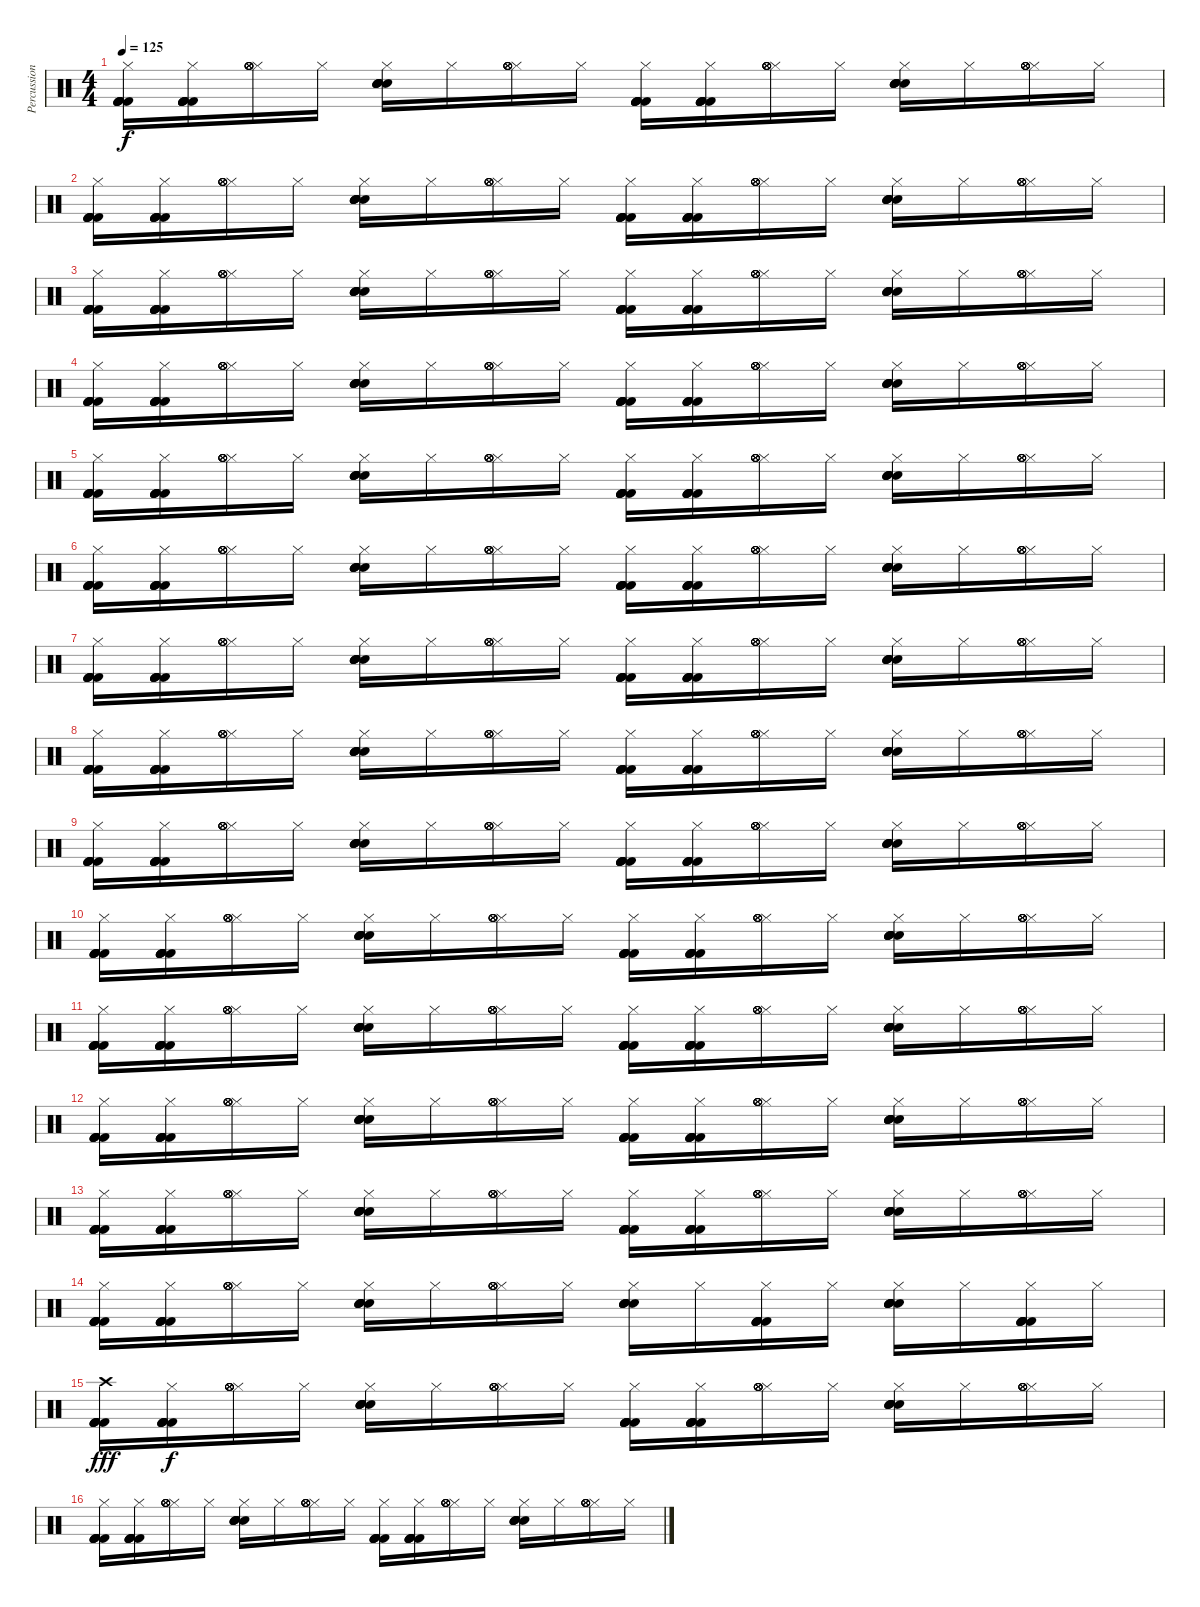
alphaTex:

\track ("Percussion" "Percussion") {instrument percussion}
\staff {score}
\articulation defaults
\ts (4 4)
\tempo 125
\clef neutral
\ks c
("Hi-Hat (closed)" "Kick (hit) 2" "Kick (hit) 2" "Kick (hit) 2" "Kick (hit) 2" "Kick (hit) 2").16{dy f} ("Hi-Hat (closed)" "Kick (hit) 2" "Kick (hit) 2" "Kick (hit) 2" "Kick (hit) 2" "Kick (hit) 2").16 ("Hi-Hat (closed)" "Hi-Hat (open)" "Hi-Hat (open)" "Hi-Hat (open)" "Hi-Hat (open)" "Hi-Hat (open)").16 "Hi-Hat (closed)".16 ("Hi-Hat (closed)" "Electric Snare (hit)" "Electric Snare (hit)" "Electric Snare (hit)" "Electric Snare (hit)" "Electric Snare (hit)").16 "Hi-Hat (closed)".16 ("Hi-Hat (closed)" "Hi-Hat (open)" "Hi-Hat (open)" "Hi-Hat (open)" "Hi-Hat (open)" "Hi-Hat (open)").16 "Hi-Hat (closed)".16 ("Hi-Hat (closed)" "Kick (hit) 2" "Kick (hit) 2" "Kick (hit) 2" "Kick (hit) 2" "Kick (hit) 2").16 ("Hi-Hat (closed)" "Kick (hit) 2" "Kick (hit) 2" "Kick (hit) 2" "Kick (hit) 2" "Kick (hit) 2").16 ("Hi-Hat (closed)" "Hi-Hat (open)" "Hi-Hat (open)" "Hi-Hat (open)" "Hi-Hat (open)" "Hi-Hat (open)").16 "Hi-Hat (closed)".16 ("Hi-Hat (closed)" "Electric Snare (hit)" "Electric Snare (hit)" "Electric Snare (hit)" "Electric Snare (hit)" "Electric Snare (hit)").16 "Hi-Hat (closed)".16 ("Hi-Hat (closed)" "Hi-Hat (open)" "Hi-Hat (open)" "Hi-Hat (open)" "Hi-Hat (open)" "Hi-Hat (open)").16 "Hi-Hat (closed)".16 |
("Hi-Hat (closed)" "Kick (hit) 2" "Kick (hit) 2" "Kick (hit) 2" "Kick (hit) 2" "Kick (hit) 2").16 ("Hi-Hat (closed)" "Kick (hit) 2" "Kick (hit) 2" "Kick (hit) 2" "Kick (hit) 2" "Kick (hit) 2").16 ("Hi-Hat (closed)" "Hi-Hat (open)" "Hi-Hat (open)" "Hi-Hat (open)" "Hi-Hat (open)" "Hi-Hat (open)").16 "Hi-Hat (closed)".16 ("Hi-Hat (closed)" "Electric Snare (hit)" "Electric Snare (hit)" "Electric Snare (hit)" "Electric Snare (hit)" "Electric Snare (hit)").16 "Hi-Hat (closed)".16 ("Hi-Hat (closed)" "Hi-Hat (open)" "Hi-Hat (open)" "Hi-Hat (open)" "Hi-Hat (open)" "Hi-Hat (open)").16 "Hi-Hat (closed)".16 ("Hi-Hat (closed)" "Kick (hit) 2" "Kick (hit) 2" "Kick (hit) 2" "Kick (hit) 2" "Kick (hit) 2").16 ("Hi-Hat (closed)" "Kick (hit) 2" "Kick (hit) 2" "Kick (hit) 2" "Kick (hit) 2" "Kick (hit) 2").16 ("Hi-Hat (closed)" "Hi-Hat (open)" "Hi-Hat (open)" "Hi-Hat (open)" "Hi-Hat (open)" "Hi-Hat (open)").16 "Hi-Hat (closed)".16 ("Hi-Hat (closed)" "Electric Snare (hit)" "Electric Snare (hit)" "Electric Snare (hit)" "Electric Snare (hit)" "Electric Snare (hit)").16 "Hi-Hat (closed)".16 ("Hi-Hat (closed)" "Hi-Hat (open)" "Hi-Hat (open)" "Hi-Hat (open)" "Hi-Hat (open)" "Hi-Hat (open)").16 "Hi-Hat (closed)".16 |
("Hi-Hat (closed)" "Kick (hit) 2" "Kick (hit) 2" "Kick (hit) 2" "Kick (hit) 2" "Kick (hit) 2").16 ("Hi-Hat (closed)" "Kick (hit) 2" "Kick (hit) 2" "Kick (hit) 2" "Kick (hit) 2" "Kick (hit) 2").16 ("Hi-Hat (closed)" "Hi-Hat (open)" "Hi-Hat (open)" "Hi-Hat (open)" "Hi-Hat (open)" "Hi-Hat (open)").16 "Hi-Hat (closed)".16 ("Hi-Hat (closed)" "Electric Snare (hit)" "Electric Snare (hit)" "Electric Snare (hit)" "Electric Snare (hit)" "Electric Snare (hit)").16 "Hi-Hat (closed)".16 ("Hi-Hat (closed)" "Hi-Hat (open)" "Hi-Hat (open)" "Hi-Hat (open)" "Hi-Hat (open)" "Hi-Hat (open)").16 "Hi-Hat (closed)".16 ("Hi-Hat (closed)" "Kick (hit) 2" "Kick (hit) 2" "Kick (hit) 2" "Kick (hit) 2" "Kick (hit) 2").16 ("Hi-Hat (closed)" "Kick (hit) 2" "Kick (hit) 2" "Kick (hit) 2" "Kick (hit) 2" "Kick (hit) 2").16 ("Hi-Hat (closed)" "Hi-Hat (open)" "Hi-Hat (open)" "Hi-Hat (open)" "Hi-Hat (open)" "Hi-Hat (open)").16 "Hi-Hat (closed)".16 ("Hi-Hat (closed)" "Electric Snare (hit)" "Electric Snare (hit)" "Electric Snare (hit)" "Electric Snare (hit)" "Electric Snare (hit)").16 "Hi-Hat (closed)".16 ("Hi-Hat (closed)" "Hi-Hat (open)" "Hi-Hat (open)" "Hi-Hat (open)" "Hi-Hat (open)" "Hi-Hat (open)").16 "Hi-Hat (closed)".16 |
("Hi-Hat (closed)" "Kick (hit) 2" "Kick (hit) 2" "Kick (hit) 2" "Kick (hit) 2" "Kick (hit) 2").16 ("Hi-Hat (closed)" "Kick (hit) 2" "Kick (hit) 2" "Kick (hit) 2" "Kick (hit) 2" "Kick (hit) 2").16 ("Hi-Hat (closed)" "Hi-Hat (open)" "Hi-Hat (open)" "Hi-Hat (open)" "Hi-Hat (open)" "Hi-Hat (open)").16 "Hi-Hat (closed)".16 ("Hi-Hat (closed)" "Electric Snare (hit)" "Electric Snare (hit)" "Electric Snare (hit)" "Electric Snare (hit)" "Electric Snare (hit)").16 "Hi-Hat (closed)".16 ("Hi-Hat (closed)" "Hi-Hat (open)" "Hi-Hat (open)" "Hi-Hat (open)" "Hi-Hat (open)" "Hi-Hat (open)").16 "Hi-Hat (closed)".16 ("Hi-Hat (closed)" "Kick (hit) 2" "Kick (hit) 2" "Kick (hit) 2" "Kick (hit) 2" "Kick (hit) 2").16 ("Hi-Hat (closed)" "Kick (hit) 2" "Kick (hit) 2" "Kick (hit) 2" "Kick (hit) 2" "Kick (hit) 2").16 ("Hi-Hat (closed)" "Hi-Hat (open)" "Hi-Hat (open)" "Hi-Hat (open)" "Hi-Hat (open)" "Hi-Hat (open)").16 "Hi-Hat (closed)".16 ("Hi-Hat (closed)" "Electric Snare (hit)" "Electric Snare (hit)" "Electric Snare (hit)" "Electric Snare (hit)" "Electric Snare (hit)").16 "Hi-Hat (closed)".16 ("Hi-Hat (closed)" "Hi-Hat (open)" "Hi-Hat (open)" "Hi-Hat (open)" "Hi-Hat (open)" "Hi-Hat (open)").16 "Hi-Hat (closed)".16 |
("Hi-Hat (closed)" "Kick (hit) 2" "Kick (hit) 2" "Kick (hit) 2" "Kick (hit) 2" "Kick (hit) 2").16 ("Hi-Hat (closed)" "Kick (hit) 2" "Kick (hit) 2" "Kick (hit) 2" "Kick (hit) 2" "Kick (hit) 2").16 ("Hi-Hat (closed)" "Hi-Hat (open)" "Hi-Hat (open)" "Hi-Hat (open)" "Hi-Hat (open)" "Hi-Hat (open)").16 "Hi-Hat (closed)".16 ("Hi-Hat (closed)" "Electric Snare (hit)" "Electric Snare (hit)" "Electric Snare (hit)" "Electric Snare (hit)" "Electric Snare (hit)").16 "Hi-Hat (closed)".16 ("Hi-Hat (closed)" "Hi-Hat (open)" "Hi-Hat (open)" "Hi-Hat (open)" "Hi-Hat (open)" "Hi-Hat (open)").16 "Hi-Hat (closed)".16 ("Hi-Hat (closed)" "Kick (hit) 2" "Kick (hit) 2" "Kick (hit) 2" "Kick (hit) 2" "Kick (hit) 2").16 ("Hi-Hat (closed)" "Kick (hit) 2" "Kick (hit) 2" "Kick (hit) 2" "Kick (hit) 2" "Kick (hit) 2").16 ("Hi-Hat (closed)" "Hi-Hat (open)" "Hi-Hat (open)" "Hi-Hat (open)" "Hi-Hat (open)" "Hi-Hat (open)").16 "Hi-Hat (closed)".16 ("Hi-Hat (closed)" "Electric Snare (hit)" "Electric Snare (hit)" "Electric Snare (hit)" "Electric Snare (hit)" "Electric Snare (hit)").16 "Hi-Hat (closed)".16 ("Hi-Hat (closed)" "Hi-Hat (open)" "Hi-Hat (open)" "Hi-Hat (open)" "Hi-Hat (open)" "Hi-Hat (open)").16 "Hi-Hat (closed)".16 |
("Hi-Hat (closed)" "Kick (hit) 2" "Kick (hit) 2" "Kick (hit) 2" "Kick (hit) 2" "Kick (hit) 2").16 ("Hi-Hat (closed)" "Kick (hit) 2" "Kick (hit) 2" "Kick (hit) 2" "Kick (hit) 2" "Kick (hit) 2").16 ("Hi-Hat (closed)" "Hi-Hat (open)" "Hi-Hat (open)" "Hi-Hat (open)" "Hi-Hat (open)" "Hi-Hat (open)").16 "Hi-Hat (closed)".16 ("Hi-Hat (closed)" "Electric Snare (hit)" "Electric Snare (hit)" "Electric Snare (hit)" "Electric Snare (hit)" "Electric Snare (hit)").16 "Hi-Hat (closed)".16 ("Hi-Hat (closed)" "Hi-Hat (open)" "Hi-Hat (open)" "Hi-Hat (open)" "Hi-Hat (open)" "Hi-Hat (open)").16 "Hi-Hat (closed)".16 ("Hi-Hat (closed)" "Kick (hit) 2" "Kick (hit) 2" "Kick (hit) 2" "Kick (hit) 2" "Kick (hit) 2").16 ("Hi-Hat (closed)" "Kick (hit) 2" "Kick (hit) 2" "Kick (hit) 2" "Kick (hit) 2" "Kick (hit) 2").16 ("Hi-Hat (closed)" "Hi-Hat (open)" "Hi-Hat (open)" "Hi-Hat (open)" "Hi-Hat (open)" "Hi-Hat (open)").16 "Hi-Hat (closed)".16 ("Hi-Hat (closed)" "Electric Snare (hit)" "Electric Snare (hit)" "Electric Snare (hit)" "Electric Snare (hit)" "Electric Snare (hit)").16 "Hi-Hat (closed)".16 ("Hi-Hat (closed)" "Hi-Hat (open)" "Hi-Hat (open)" "Hi-Hat (open)" "Hi-Hat (open)" "Hi-Hat (open)").16 "Hi-Hat (closed)".16 |
("Hi-Hat (closed)" "Kick (hit) 2" "Kick (hit) 2" "Kick (hit) 2" "Kick (hit) 2" "Kick (hit) 2").16 ("Hi-Hat (closed)" "Kick (hit) 2" "Kick (hit) 2" "Kick (hit) 2" "Kick (hit) 2" "Kick (hit) 2").16 ("Hi-Hat (closed)" "Hi-Hat (open)" "Hi-Hat (open)" "Hi-Hat (open)" "Hi-Hat (open)" "Hi-Hat (open)").16 "Hi-Hat (closed)".16 ("Hi-Hat (closed)" "Electric Snare (hit)" "Electric Snare (hit)" "Electric Snare (hit)" "Electric Snare (hit)" "Electric Snare (hit)").16 "Hi-Hat (closed)".16 ("Hi-Hat (closed)" "Hi-Hat (open)" "Hi-Hat (open)" "Hi-Hat (open)" "Hi-Hat (open)" "Hi-Hat (open)").16 "Hi-Hat (closed)".16 ("Hi-Hat (closed)" "Kick (hit) 2" "Kick (hit) 2" "Kick (hit) 2" "Kick (hit) 2" "Kick (hit) 2").16 ("Hi-Hat (closed)" "Kick (hit) 2" "Kick (hit) 2" "Kick (hit) 2" "Kick (hit) 2" "Kick (hit) 2").16 ("Hi-Hat (closed)" "Hi-Hat (open)" "Hi-Hat (open)" "Hi-Hat (open)" "Hi-Hat (open)" "Hi-Hat (open)").16 "Hi-Hat (closed)".16 ("Hi-Hat (closed)" "Electric Snare (hit)" "Electric Snare (hit)" "Electric Snare (hit)" "Electric Snare (hit)" "Electric Snare (hit)").16 "Hi-Hat (closed)".16 ("Hi-Hat (closed)" "Hi-Hat (open)" "Hi-Hat (open)" "Hi-Hat (open)" "Hi-Hat (open)" "Hi-Hat (open)").16 "Hi-Hat (closed)".16 |
("Hi-Hat (closed)" "Kick (hit) 2" "Kick (hit) 2" "Kick (hit) 2" "Kick (hit) 2" "Kick (hit) 2").16 ("Hi-Hat (closed)" "Kick (hit) 2" "Kick (hit) 2" "Kick (hit) 2" "Kick (hit) 2" "Kick (hit) 2").16 ("Hi-Hat (closed)" "Hi-Hat (open)" "Hi-Hat (open)" "Hi-Hat (open)" "Hi-Hat (open)" "Hi-Hat (open)").16 "Hi-Hat (closed)".16 ("Hi-Hat (closed)" "Electric Snare (hit)" "Electric Snare (hit)" "Electric Snare (hit)" "Electric Snare (hit)" "Electric Snare (hit)").16 "Hi-Hat (closed)".16 ("Hi-Hat (closed)" "Hi-Hat (open)" "Hi-Hat (open)" "Hi-Hat (open)" "Hi-Hat (open)" "Hi-Hat (open)").16 "Hi-Hat (closed)".16 ("Hi-Hat (closed)" "Kick (hit) 2" "Kick (hit) 2" "Kick (hit) 2" "Kick (hit) 2" "Kick (hit) 2").16 ("Hi-Hat (closed)" "Kick (hit) 2" "Kick (hit) 2" "Kick (hit) 2" "Kick (hit) 2" "Kick (hit) 2").16 ("Hi-Hat (closed)" "Hi-Hat (open)" "Hi-Hat (open)" "Hi-Hat (open)" "Hi-Hat (open)" "Hi-Hat (open)").16 "Hi-Hat (closed)".16 ("Hi-Hat (closed)" "Electric Snare (hit)" "Electric Snare (hit)" "Electric Snare (hit)" "Electric Snare (hit)" "Electric Snare (hit)").16 "Hi-Hat (closed)".16 ("Hi-Hat (closed)" "Hi-Hat (open)" "Hi-Hat (open)" "Hi-Hat (open)" "Hi-Hat (open)" "Hi-Hat (open)").16 "Hi-Hat (closed)".16 |
("Hi-Hat (closed)" "Kick (hit) 2" "Kick (hit) 2" "Kick (hit) 2" "Kick (hit) 2" "Kick (hit) 2").16 ("Hi-Hat (closed)" "Kick (hit) 2" "Kick (hit) 2" "Kick (hit) 2" "Kick (hit) 2" "Kick (hit) 2").16 ("Hi-Hat (closed)" "Hi-Hat (open)" "Hi-Hat (open)" "Hi-Hat (open)" "Hi-Hat (open)" "Hi-Hat (open)").16 "Hi-Hat (closed)".16 ("Hi-Hat (closed)" "Electric Snare (hit)" "Electric Snare (hit)" "Electric Snare (hit)" "Electric Snare (hit)" "Electric Snare (hit)").16 "Hi-Hat (closed)".16 ("Hi-Hat (closed)" "Hi-Hat (open)" "Hi-Hat (open)" "Hi-Hat (open)" "Hi-Hat (open)" "Hi-Hat (open)").16 "Hi-Hat (closed)".16 ("Hi-Hat (closed)" "Kick (hit) 2" "Kick (hit) 2" "Kick (hit) 2" "Kick (hit) 2" "Kick (hit) 2").16 ("Hi-Hat (closed)" "Kick (hit) 2" "Kick (hit) 2" "Kick (hit) 2" "Kick (hit) 2" "Kick (hit) 2").16 ("Hi-Hat (closed)" "Hi-Hat (open)" "Hi-Hat (open)" "Hi-Hat (open)" "Hi-Hat (open)" "Hi-Hat (open)").16 "Hi-Hat (closed)".16 ("Hi-Hat (closed)" "Electric Snare (hit)" "Electric Snare (hit)" "Electric Snare (hit)" "Electric Snare (hit)" "Electric Snare (hit)").16 "Hi-Hat (closed)".16 ("Hi-Hat (closed)" "Hi-Hat (open)" "Hi-Hat (open)" "Hi-Hat (open)" "Hi-Hat (open)" "Hi-Hat (open)").16 "Hi-Hat (closed)".16 |
("Hi-Hat (closed)" "Kick (hit) 2" "Kick (hit) 2" "Kick (hit) 2" "Kick (hit) 2" "Kick (hit) 2").16 ("Hi-Hat (closed)" "Kick (hit) 2" "Kick (hit) 2" "Kick (hit) 2" "Kick (hit) 2" "Kick (hit) 2").16 ("Hi-Hat (closed)" "Hi-Hat (open)" "Hi-Hat (open)" "Hi-Hat (open)" "Hi-Hat (open)" "Hi-Hat (open)").16 "Hi-Hat (closed)".16 ("Hi-Hat (closed)" "Electric Snare (hit)" "Electric Snare (hit)" "Electric Snare (hit)" "Electric Snare (hit)" "Electric Snare (hit)").16 "Hi-Hat (closed)".16 ("Hi-Hat (closed)" "Hi-Hat (open)" "Hi-Hat (open)" "Hi-Hat (open)" "Hi-Hat (open)" "Hi-Hat (open)").16 "Hi-Hat (closed)".16 ("Hi-Hat (closed)" "Kick (hit) 2" "Kick (hit) 2" "Kick (hit) 2" "Kick (hit) 2" "Kick (hit) 2").16 ("Hi-Hat (closed)" "Kick (hit) 2" "Kick (hit) 2" "Kick (hit) 2" "Kick (hit) 2" "Kick (hit) 2").16 ("Hi-Hat (closed)" "Hi-Hat (open)" "Hi-Hat (open)" "Hi-Hat (open)" "Hi-Hat (open)" "Hi-Hat (open)").16 "Hi-Hat (closed)".16 ("Hi-Hat (closed)" "Electric Snare (hit)" "Electric Snare (hit)" "Electric Snare (hit)" "Electric Snare (hit)" "Electric Snare (hit)").16 "Hi-Hat (closed)".16 ("Hi-Hat (closed)" "Hi-Hat (open)" "Hi-Hat (open)" "Hi-Hat (open)" "Hi-Hat (open)" "Hi-Hat (open)").16 "Hi-Hat (closed)".16 |
("Hi-Hat (closed)" "Kick (hit) 2" "Kick (hit) 2" "Kick (hit) 2" "Kick (hit) 2" "Kick (hit) 2").16 ("Hi-Hat (closed)" "Kick (hit) 2" "Kick (hit) 2" "Kick (hit) 2" "Kick (hit) 2" "Kick (hit) 2").16 ("Hi-Hat (closed)" "Hi-Hat (open)" "Hi-Hat (open)" "Hi-Hat (open)" "Hi-Hat (open)" "Hi-Hat (open)").16 "Hi-Hat (closed)".16 ("Hi-Hat (closed)" "Electric Snare (hit)" "Electric Snare (hit)" "Electric Snare (hit)" "Electric Snare (hit)" "Electric Snare (hit)").16 "Hi-Hat (closed)".16 ("Hi-Hat (closed)" "Hi-Hat (open)" "Hi-Hat (open)" "Hi-Hat (open)" "Hi-Hat (open)" "Hi-Hat (open)").16 "Hi-Hat (closed)".16 ("Hi-Hat (closed)" "Kick (hit) 2" "Kick (hit) 2" "Kick (hit) 2" "Kick (hit) 2" "Kick (hit) 2").16 ("Hi-Hat (closed)" "Kick (hit) 2" "Kick (hit) 2" "Kick (hit) 2" "Kick (hit) 2" "Kick (hit) 2").16 ("Hi-Hat (closed)" "Hi-Hat (open)" "Hi-Hat (open)" "Hi-Hat (open)" "Hi-Hat (open)" "Hi-Hat (open)").16 "Hi-Hat (closed)".16 ("Hi-Hat (closed)" "Electric Snare (hit)" "Electric Snare (hit)" "Electric Snare (hit)" "Electric Snare (hit)" "Electric Snare (hit)").16 "Hi-Hat (closed)".16 ("Hi-Hat (closed)" "Hi-Hat (open)" "Hi-Hat (open)" "Hi-Hat (open)" "Hi-Hat (open)" "Hi-Hat (open)").16 "Hi-Hat (closed)".16 |
("Hi-Hat (closed)" "Kick (hit) 2" "Kick (hit) 2" "Kick (hit) 2" "Kick (hit) 2" "Kick (hit) 2").16 ("Hi-Hat (closed)" "Kick (hit) 2" "Kick (hit) 2" "Kick (hit) 2" "Kick (hit) 2" "Kick (hit) 2").16 ("Hi-Hat (closed)" "Hi-Hat (open)" "Hi-Hat (open)" "Hi-Hat (open)" "Hi-Hat (open)" "Hi-Hat (open)").16 "Hi-Hat (closed)".16 ("Hi-Hat (closed)" "Electric Snare (hit)" "Electric Snare (hit)" "Electric Snare (hit)" "Electric Snare (hit)" "Electric Snare (hit)").16 "Hi-Hat (closed)".16 ("Hi-Hat (closed)" "Hi-Hat (open)" "Hi-Hat (open)" "Hi-Hat (open)" "Hi-Hat (open)" "Hi-Hat (open)").16 "Hi-Hat (closed)".16 ("Hi-Hat (closed)" "Kick (hit) 2" "Kick (hit) 2" "Kick (hit) 2" "Kick (hit) 2" "Kick (hit) 2").16 ("Hi-Hat (closed)" "Kick (hit) 2" "Kick (hit) 2" "Kick (hit) 2" "Kick (hit) 2" "Kick (hit) 2").16 ("Hi-Hat (closed)" "Hi-Hat (open)" "Hi-Hat (open)" "Hi-Hat (open)" "Hi-Hat (open)" "Hi-Hat (open)").16 "Hi-Hat (closed)".16 ("Hi-Hat (closed)" "Electric Snare (hit)" "Electric Snare (hit)" "Electric Snare (hit)" "Electric Snare (hit)" "Electric Snare (hit)").16 "Hi-Hat (closed)".16 ("Hi-Hat (closed)" "Hi-Hat (open)" "Hi-Hat (open)" "Hi-Hat (open)" "Hi-Hat (open)" "Hi-Hat (open)").16 "Hi-Hat (closed)".16 |
("Hi-Hat (closed)" "Kick (hit) 2" "Kick (hit) 2" "Kick (hit) 2" "Kick (hit) 2" "Kick (hit) 2").16 ("Hi-Hat (closed)" "Kick (hit) 2" "Kick (hit) 2" "Kick (hit) 2" "Kick (hit) 2" "Kick (hit) 2").16 ("Hi-Hat (closed)" "Hi-Hat (open)" "Hi-Hat (open)" "Hi-Hat (open)" "Hi-Hat (open)" "Hi-Hat (open)").16 "Hi-Hat (closed)".16 ("Hi-Hat (closed)" "Electric Snare (hit)" "Electric Snare (hit)" "Electric Snare (hit)" "Electric Snare (hit)" "Electric Snare (hit)").16 "Hi-Hat (closed)".16 ("Hi-Hat (closed)" "Hi-Hat (open)" "Hi-Hat (open)" "Hi-Hat (open)" "Hi-Hat (open)" "Hi-Hat (open)").16 "Hi-Hat (closed)".16 ("Hi-Hat (closed)" "Kick (hit) 2" "Kick (hit) 2" "Kick (hit) 2" "Kick (hit) 2" "Kick (hit) 2").16 ("Hi-Hat (closed)" "Kick (hit) 2" "Kick (hit) 2" "Kick (hit) 2" "Kick (hit) 2" "Kick (hit) 2").16 ("Hi-Hat (closed)" "Hi-Hat (open)" "Hi-Hat (open)" "Hi-Hat (open)" "Hi-Hat (open)" "Hi-Hat (open)").16 "Hi-Hat (closed)".16 ("Hi-Hat (closed)" "Electric Snare (hit)" "Electric Snare (hit)" "Electric Snare (hit)" "Electric Snare (hit)" "Electric Snare (hit)").16 "Hi-Hat (closed)".16 ("Hi-Hat (closed)" "Hi-Hat (open)" "Hi-Hat (open)" "Hi-Hat (open)" "Hi-Hat (open)" "Hi-Hat (open)").16 "Hi-Hat (closed)".16 |
("Hi-Hat (closed)" "Kick (hit) 2" "Kick (hit) 2" "Kick (hit) 2" "Kick (hit) 2" "Kick (hit) 2").16 ("Hi-Hat (closed)" "Kick (hit) 2" "Kick (hit) 2" "Kick (hit) 2" "Kick (hit) 2" "Kick (hit) 2").16 ("Hi-Hat (closed)" "Hi-Hat (open)" "Hi-Hat (open)" "Hi-Hat (open)" "Hi-Hat (open)" "Hi-Hat (open)").16 "Hi-Hat (closed)".16 ("Hi-Hat (closed)" "Electric Snare (hit)" "Electric Snare (hit)" "Electric Snare (hit)" "Electric Snare (hit)" "Electric Snare (hit)").16 "Hi-Hat (closed)".16 ("Hi-Hat (closed)" "Hi-Hat (open)" "Hi-Hat (open)" "Hi-Hat (open)" "Hi-Hat (open)" "Hi-Hat (open)").16 "Hi-Hat (closed)".16 ("Hi-Hat (closed)" "Electric Snare (hit)" "Electric Snare (hit)" "Electric Snare (hit)" "Electric Snare (hit)" "Electric Snare (hit)").16 "Hi-Hat (closed)".16 ("Hi-Hat (closed)" "Kick (hit) 2" "Kick (hit) 2" "Kick (hit) 2" "Kick (hit) 2" "Kick (hit) 2").16 "Hi-Hat (closed)".16 ("Hi-Hat (closed)" "Electric Snare (hit)" "Electric Snare (hit)" "Electric Snare (hit)" "Electric Snare (hit)" "Electric Snare (hit)").16 "Hi-Hat (closed)".16 ("Hi-Hat (closed)" "Kick (hit) 2" "Kick (hit) 2" "Kick (hit) 2" "Kick (hit) 2" "Kick (hit) 2").16 "Hi-Hat (closed)".16 |
("Crash high (hit)" "Kick (hit) 2" "Kick (hit) 2" "Kick (hit) 2" "Kick (hit) 2" "Kick (hit) 2").16{dy fff} ("Hi-Hat (closed)" "Kick (hit) 2" "Kick (hit) 2" "Kick (hit) 2" "Kick (hit) 2" "Kick (hit) 2").16{dy f} ("Hi-Hat (closed)" "Hi-Hat (open)" "Hi-Hat (open)" "Hi-Hat (open)" "Hi-Hat (open)" "Hi-Hat (open)").16 "Hi-Hat (closed)".16 ("Hi-Hat (closed)" "Electric Snare (hit)" "Electric Snare (hit)" "Electric Snare (hit)" "Electric Snare (hit)" "Electric Snare (hit)").16 "Hi-Hat (closed)".16 ("Hi-Hat (closed)" "Hi-Hat (open)" "Hi-Hat (open)" "Hi-Hat (open)" "Hi-Hat (open)" "Hi-Hat (open)").16 "Hi-Hat (closed)".16 ("Hi-Hat (closed)" "Kick (hit) 2" "Kick (hit) 2" "Kick (hit) 2" "Kick (hit) 2" "Kick (hit) 2").16 ("Hi-Hat (closed)" "Kick (hit) 2" "Kick (hit) 2" "Kick (hit) 2" "Kick (hit) 2" "Kick (hit) 2").16 ("Hi-Hat (closed)" "Hi-Hat (open)" "Hi-Hat (open)" "Hi-Hat (open)" "Hi-Hat (open)" "Hi-Hat (open)").16 "Hi-Hat (closed)".16 ("Hi-Hat (closed)" "Electric Snare (hit)" "Electric Snare (hit)" "Electric Snare (hit)" "Electric Snare (hit)" "Electric Snare (hit)").16 "Hi-Hat (closed)".16 ("Hi-Hat (closed)" "Hi-Hat (open)" "Hi-Hat (open)" "Hi-Hat (open)" "Hi-Hat (open)" "Hi-Hat (open)").16 "Hi-Hat (closed)".16 |
("Hi-Hat (closed)" "Kick (hit) 2" "Kick (hit) 2" "Kick (hit) 2" "Kick (hit) 2" "Kick (hit) 2").16 ("Hi-Hat (closed)" "Kick (hit) 2" "Kick (hit) 2" "Kick (hit) 2" "Kick (hit) 2" "Kick (hit) 2").16 ("Hi-Hat (closed)" "Hi-Hat (open)" "Hi-Hat (open)" "Hi-Hat (open)" "Hi-Hat (open)" "Hi-Hat (open)").16 "Hi-Hat (closed)".16 ("Hi-Hat (closed)" "Electric Snare (hit)" "Electric Snare (hit)" "Electric Snare (hit)" "Electric Snare (hit)" "Electric Snare (hit)").16 "Hi-Hat (closed)".16 ("Hi-Hat (closed)" "Hi-Hat (open)" "Hi-Hat (open)" "Hi-Hat (open)" "Hi-Hat (open)" "Hi-Hat (open)").16 "Hi-Hat (closed)".16 ("Hi-Hat (closed)" "Kick (hit) 2" "Kick (hit) 2" "Kick (hit) 2" "Kick (hit) 2" "Kick (hit) 2").16 ("Hi-Hat (closed)" "Kick (hit) 2" "Kick (hit) 2" "Kick (hit) 2" "Kick (hit) 2" "Kick (hit) 2").16 ("Hi-Hat (closed)" "Hi-Hat (open)" "Hi-Hat (open)" "Hi-Hat (open)" "Hi-Hat (open)" "Hi-Hat (open)").16 "Hi-Hat (closed)".16 ("Hi-Hat (closed)" "Electric Snare (hit)" "Electric Snare (hit)" "Electric Snare (hit)" "Electric Snare (hit)" "Electric Snare (hit)").16 "Hi-Hat (closed)".16 ("Hi-Hat (closed)" "Hi-Hat (open)" "Hi-Hat (open)" "Hi-Hat (open)" "Hi-Hat (open)" "Hi-Hat (open)").16 "Hi-Hat (closed)".16
